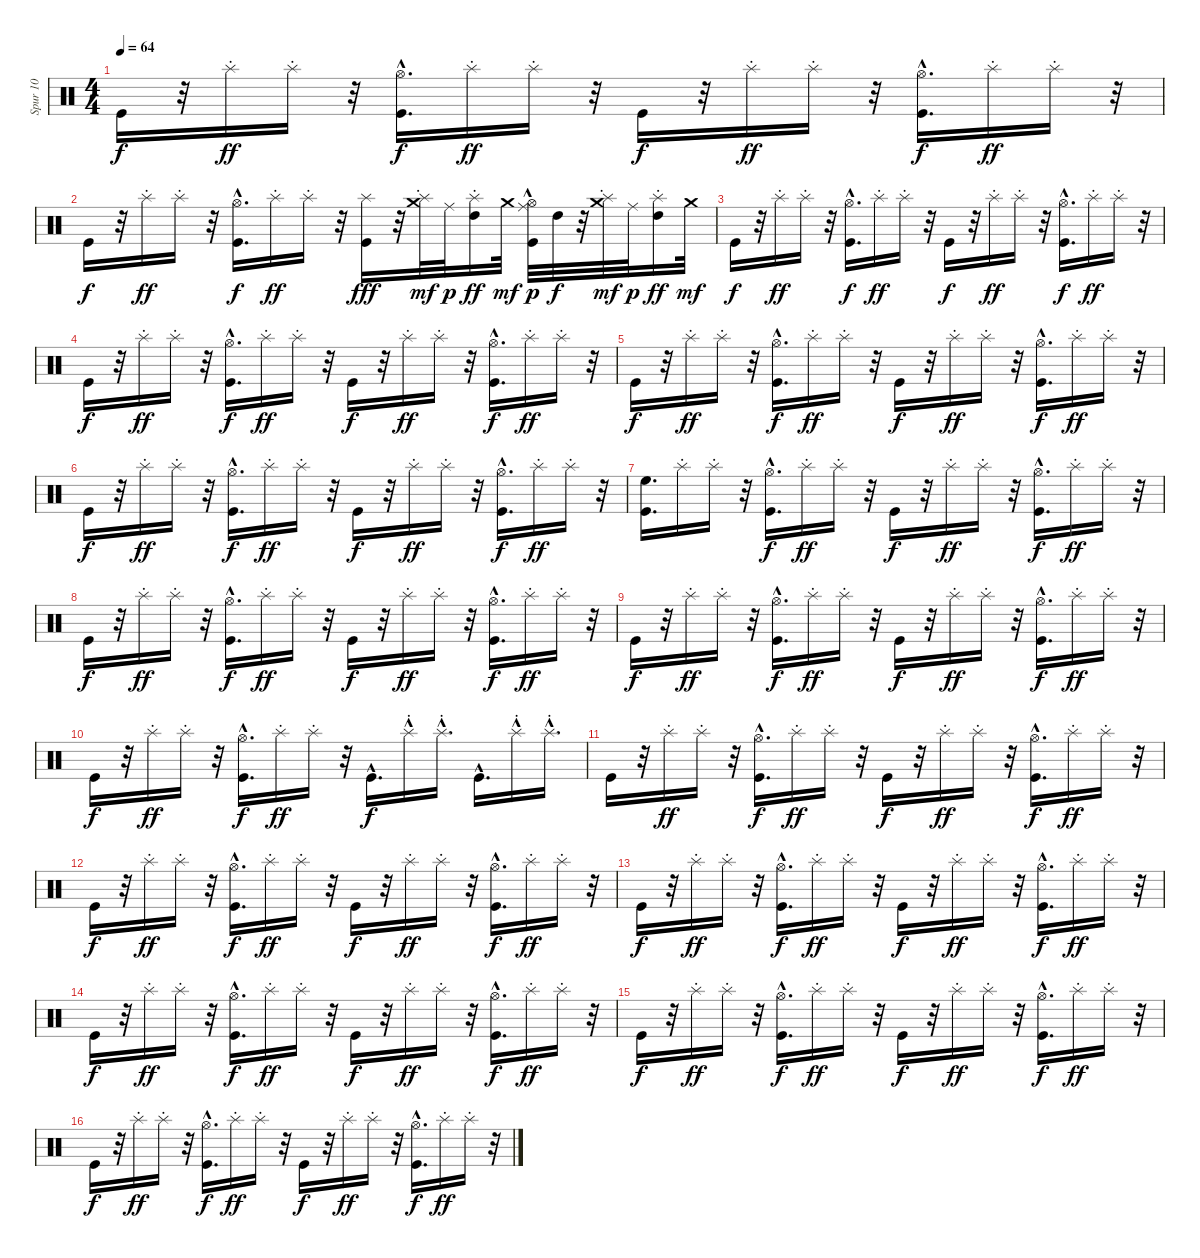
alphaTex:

\track ("Spur 10" "Spur 10") {instrument percussion}
\staff {score}
\articulation defaults
\ts (4 4)
\tempo 64
\clef neutral
\ks c "Kick (hit)".16{dy f}
r.32 "Splash (choke)".16{dy ff} "Splash (choke)".16 r.32 ("Kick (hit)" "Hi-Hat (open)"{hac}).16{d dy f} "Splash (choke)".16{dy ff} "Splash (choke)".16 r.32 "Kick (hit)".16{dy f} r.32 "Splash (choke)".16{dy ff} "Splash (choke)".16 r.32 ("Kick (hit)" "Hi-Hat (open)"{hac}).16{d dy f} "Splash (choke)".16{dy ff} "Splash (choke)".16 r.32 |
"Kick (hit)".16{dy f} r.32 "Splash (choke)".16{dy ff} "Splash (choke)".16 r.32 ("Kick (hit)" "Hi-Hat (open)"{hac}).16{d dy f} "Splash (choke)".16{dy ff} "Splash (choke)".16 r.32 ("Kick (hit)" "Splash (hit)").16{dy fff} r.32 ("Splash (choke)" "Crash medium (hit)").32{dy mf} "Ride (middle)".32{dy p} ("Splash (choke)" "High Tom (hit)").16{dy ff} "Crash medium (hit)".32{dy mf} ("Kick (hit)" "Hi-Hat (open)"{hac} "Ride (middle)").32{dy p} "High Tom (hit)".32{dy f} r.32 ("Splash (choke)" "Crash medium (hit)").32{dy mf} "Ride (middle)".32{dy p} ("Splash (choke)" "High Tom (hit)").16{dy ff} "Crash medium (hit)".32{dy mf} |
"Kick (hit)".16{dy f} r.32 "Splash (choke)".16{dy ff} "Splash (choke)".16 r.32 ("Kick (hit)" "Hi-Hat (open)"{hac}).16{d dy f} "Splash (choke)".16{dy ff} "Splash (choke)".16 r.32 "Kick (hit)".16{dy f} r.32 "Splash (choke)".16{dy ff} "Splash (choke)".16 r.32 ("Kick (hit)" "Hi-Hat (open)"{hac}).16{d dy f} "Splash (choke)".16{dy ff} "Splash (choke)".16 r.32 |
"Kick (hit)".16{dy f} r.32 "Splash (choke)".16{dy ff} "Splash (choke)".16 r.32 ("Kick (hit)" "Hi-Hat (open)"{hac}).16{d dy f} "Splash (choke)".16{dy ff} "Splash (choke)".16 r.32 "Kick (hit)".16{dy f} r.32 "Splash (choke)".16{dy ff} "Splash (choke)".16 r.32 ("Kick (hit)" "Hi-Hat (open)"{hac}).16{d dy f} "Splash (choke)".16{dy ff} "Splash (choke)".16 r.32 |
"Kick (hit)".16{dy f} r.32 "Splash (choke)".16{dy ff} "Splash (choke)".16 r.32 ("Kick (hit)" "Hi-Hat (open)"{hac}).16{d dy f} "Splash (choke)".16{dy ff} "Splash (choke)".16 r.32 "Kick (hit)".16{dy f} r.32 "Splash (choke)".16{dy ff} "Splash (choke)".16 r.32 ("Kick (hit)" "Hi-Hat (open)"{hac}).16{d dy f} "Splash (choke)".16{dy ff} "Splash (choke)".16 r.32 |
"Kick (hit)".16{dy f} r.32 "Splash (choke)".16{dy ff} "Splash (choke)".16 r.32 ("Kick (hit)" "Hi-Hat (open)"{hac}).16{d dy f} "Splash (choke)".16{dy ff} "Splash (choke)".16 r.32 "Kick (hit)".16{dy f} r.32 "Splash (choke)".16{dy ff} "Splash (choke)".16 r.32 ("Kick (hit)" "Hi-Hat (open)"{hac}).16{d dy f} "Splash (choke)".16{dy ff} "Splash (choke)".16 r.32 |
("High Floor Tom (hit)" "Kick (hit)").16{d} "Splash (choke)".16 "Splash (choke)".16 r.32 ("Kick (hit)" "Hi-Hat (open)"{hac}).16{d dy f} "Splash (choke)".16{dy ff} "Splash (choke)".16 r.32 "Kick (hit)".16{dy f} r.32 "Splash (choke)".16{dy ff} "Splash (choke)".16 r.32 ("Kick (hit)" "Hi-Hat (open)"{hac}).16{d dy f} "Splash (choke)".16{dy ff} "Splash (choke)".16 r.32 |
"Kick (hit)".16{dy f} r.32 "Splash (choke)".16{dy ff} "Splash (choke)".16 r.32 ("Kick (hit)" "Hi-Hat (open)"{hac}).16{d dy f} "Splash (choke)".16{dy ff} "Splash (choke)".16 r.32 "Kick (hit)".16{dy f} r.32 "Splash (choke)".16{dy ff} "Splash (choke)".16 r.32 ("Kick (hit)" "Hi-Hat (open)"{hac}).16{d dy f} "Splash (choke)".16{dy ff} "Splash (choke)".16 r.32 |
"Kick (hit)".16{dy f} r.32 "Splash (choke)".16{dy ff} "Splash (choke)".16 r.32 ("Kick (hit)" "Hi-Hat (open)"{hac}).16{d dy f} "Splash (choke)".16{dy ff} "Splash (choke)".16 r.32 "Kick (hit)".16{dy f} r.32 "Splash (choke)".16{dy ff} "Splash (choke)".16 r.32 ("Kick (hit)" "Hi-Hat (open)"{hac}).16{d dy f} "Splash (choke)".16{dy ff} "Splash (choke)".16 r.32 |
"Kick (hit)".16{dy f} r.32 "Splash (choke)".16{dy ff} "Splash (choke)".16 r.32 ("Kick (hit)" "Hi-Hat (open)"{hac}).16{d dy f} "Splash (choke)".16{dy ff} "Splash (choke)".16 r.32 "Kick (hit)"{hac}.16{d dy f} "Splash (choke)"{hac}.16 "Splash (choke)"{hac}.16{d} "Kick (hit)"{hac}.16{d} "Splash (choke)"{hac}.16 "Splash (choke)"{hac}.16{d} |
"Kick (hit)".16 r.32 "Splash (choke)".16{dy ff} "Splash (choke)".16 r.32 ("Kick (hit)" "Hi-Hat (open)"{hac}).16{d dy f} "Splash (choke)".16{dy ff} "Splash (choke)".16 r.32 "Kick (hit)".16{dy f} r.32 "Splash (choke)".16{dy ff} "Splash (choke)".16 r.32 ("Kick (hit)" "Hi-Hat (open)"{hac}).16{d dy f} "Splash (choke)".16{dy ff} "Splash (choke)".16 r.32 |
"Kick (hit)".16{dy f} r.32 "Splash (choke)".16{dy ff} "Splash (choke)".16 r.32 ("Kick (hit)" "Hi-Hat (open)"{hac}).16{d dy f} "Splash (choke)".16{dy ff} "Splash (choke)".16 r.32 "Kick (hit)".16{dy f} r.32 "Splash (choke)".16{dy ff} "Splash (choke)".16 r.32 ("Kick (hit)" "Hi-Hat (open)"{hac}).16{d dy f} "Splash (choke)".16{dy ff} "Splash (choke)".16 r.32 |
"Kick (hit)".16{dy f} r.32 "Splash (choke)".16{dy ff} "Splash (choke)".16 r.32 ("Kick (hit)" "Hi-Hat (open)"{hac}).16{d dy f} "Splash (choke)".16{dy ff} "Splash (choke)".16 r.32 "Kick (hit)".16{dy f} r.32 "Splash (choke)".16{dy ff} "Splash (choke)".16 r.32 ("Kick (hit)" "Hi-Hat (open)"{hac}).16{d dy f} "Splash (choke)".16{dy ff} "Splash (choke)".16 r.32 |
"Kick (hit)".16{dy f} r.32 "Splash (choke)".16{dy ff} "Splash (choke)".16 r.32 ("Kick (hit)" "Hi-Hat (open)"{hac}).16{d dy f} "Splash (choke)".16{dy ff} "Splash (choke)".16 r.32 "Kick (hit)".16{dy f} r.32 "Splash (choke)".16{dy ff} "Splash (choke)".16 r.32 ("Kick (hit)" "Hi-Hat (open)"{hac}).16{d dy f} "Splash (choke)".16{dy ff} "Splash (choke)".16 r.32 |
"Kick (hit)".16{dy f} r.32 "Splash (choke)".16{dy ff} "Splash (choke)".16 r.32 ("Kick (hit)" "Hi-Hat (open)"{hac}).16{d dy f} "Splash (choke)".16{dy ff} "Splash (choke)".16 r.32 "Kick (hit)".16{dy f} r.32 "Splash (choke)".16{dy ff} "Splash (choke)".16 r.32 ("Kick (hit)" "Hi-Hat (open)"{hac}).16{d dy f} "Splash (choke)".16{dy ff} "Splash (choke)".16 r.32 |
"Kick (hit)".16{dy f} r.32 "Splash (choke)".16{dy ff} "Splash (choke)".16 r.32 ("Kick (hit)" "Hi-Hat (open)"{hac}).16{d dy f} "Splash (choke)".16{dy ff} "Splash (choke)".16 r.32 "Kick (hit)".16{dy f} r.32 "Splash (choke)".16{dy ff} "Splash (choke)".16 r.32 ("Kick (hit)" "Hi-Hat (open)"{hac}).16{d dy f} "Splash (choke)".16{dy ff} "Splash (choke)".16 r.32
